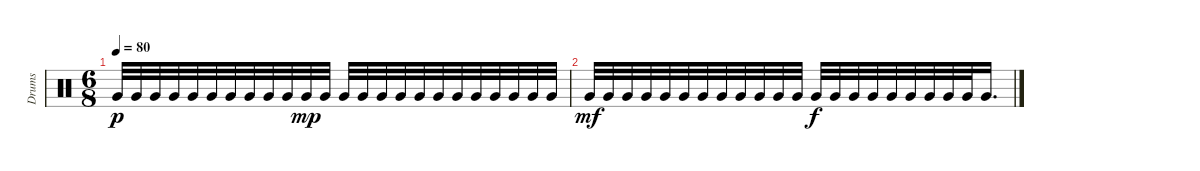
\track ("Drums" "Drums") {instrument percussion}
\staff {score}
\articulation defaults
\ts (6 8)
\tempo 80
\clef neutral
\ks c "Very Low Tom (hit)".32{dy p} "Very Low Tom (hit)".32 "Very Low Tom (hit)".32 "Very Low Tom (hit)".32 "Very Low Tom (hit)".32 "Very Low Tom (hit)".32 "Very Low Tom (hit)".32 "Very Low Tom (hit)".32 "Very Low Tom (hit)".32 "Very Low Tom (hit)".32 "Very Low Tom (hit)".32{dy mp} "Very Low Tom (hit)".32 "Very Low Tom (hit)".32 "Very Low Tom (hit)".32 "Very Low Tom (hit)".32 "Very Low Tom (hit)".32 "Very Low Tom (hit)".32 "Very Low Tom (hit)".32 "Very Low Tom (hit)".32 "Very Low Tom (hit)".32 "Very Low Tom (hit)".32 "Very Low Tom (hit)".32 "Very Low Tom (hit)".32 "Very Low Tom (hit)".32
|
"Very Low Tom (hit)".32{dy mf} "Very Low Tom (hit)".32 "Very Low Tom (hit)".32 "Very Low Tom (hit)".32 "Very Low Tom (hit)".32 "Very Low Tom (hit)".32 "Very Low Tom (hit)".32 "Very Low Tom (hit)".32 "Very Low Tom (hit)".32 "Very Low Tom (hit)".32 "Very Low Tom (hit)".32 "Very Low Tom (hit)".32 "Very Low Tom (hit)".32{dy f} "Very Low Tom (hit)".32 "Very Low Tom (hit)".32 "Very Low Tom (hit)".32 "Very Low Tom (hit)".32 "Very Low Tom (hit)".32 "Very Low Tom (hit)".32 "Very Low Tom (hit)".32 "Very Low Tom (hit)".32 "Very Low Tom (hit)".16{d}
